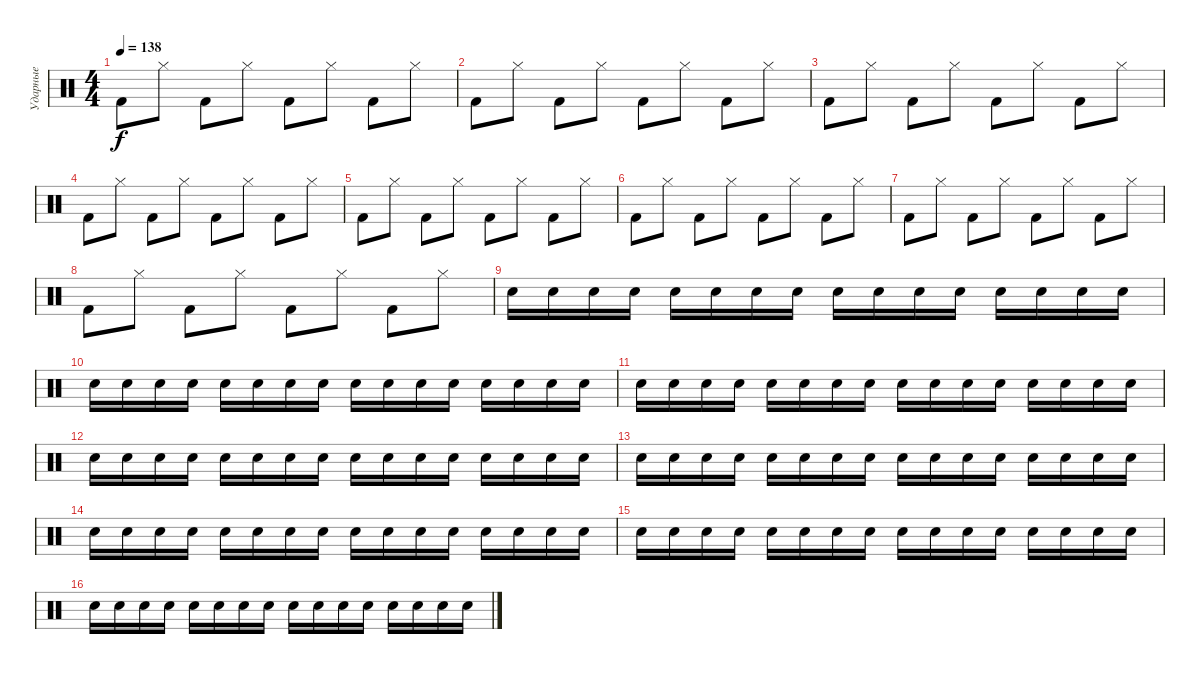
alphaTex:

\track ("Ударные" "Ударные") {instrument percussion}
\staff {score}
\articulation defaults
\ts (4 4)
\tempo 138
\clef neutral
\ks c "Kick (hit) 2".8{dy f} "Hi-Hat (closed)".8 "Kick (hit) 2".8 "Hi-Hat (closed)".8 "Kick (hit) 2".8 "Hi-Hat (closed)".8 "Kick (hit) 2".8 "Hi-Hat (closed)".8
|
"Kick (hit) 2".8 "Hi-Hat (closed)".8 "Kick (hit) 2".8 "Hi-Hat (closed)".8 "Kick (hit) 2".8 "Hi-Hat (closed)".8 "Kick (hit) 2".8 "Hi-Hat (closed)".8 |
"Kick (hit) 2".8 "Hi-Hat (closed)".8 "Kick (hit) 2".8 "Hi-Hat (closed)".8 "Kick (hit) 2".8 "Hi-Hat (closed)".8 "Kick (hit) 2".8 "Hi-Hat (closed)".8 |
"Kick (hit) 2".8 "Hi-Hat (closed)".8 "Kick (hit) 2".8 "Hi-Hat (closed)".8 "Kick (hit) 2".8 "Hi-Hat (closed)".8 "Kick (hit) 2".8 "Hi-Hat (closed)".8 |
"Kick (hit) 2".8 "Hi-Hat (closed)".8 "Kick (hit) 2".8 "Hi-Hat (closed)".8 "Kick (hit) 2".8 "Hi-Hat (closed)".8 "Kick (hit) 2".8 "Hi-Hat (closed)".8 |
"Kick (hit) 2".8 "Hi-Hat (closed)".8 "Kick (hit) 2".8 "Hi-Hat (closed)".8 "Kick (hit) 2".8 "Hi-Hat (closed)".8 "Kick (hit) 2".8 "Hi-Hat (closed)".8 |
"Kick (hit) 2".8 "Hi-Hat (closed)".8 "Kick (hit) 2".8 "Hi-Hat (closed)".8 "Kick (hit) 2".8 "Hi-Hat (closed)".8 "Kick (hit) 2".8 "Hi-Hat (closed)".8 |
"Kick (hit) 2".8 "Hi-Hat (closed)".8 "Kick (hit) 2".8 "Hi-Hat (closed)".8 "Kick (hit) 2".8 "Hi-Hat (closed)".8 "Kick (hit) 2".8 "Hi-Hat (closed)".8 |
"Snare (hit) 2".16 "Snare (hit) 2".16 "Snare (hit) 2".16 "Snare (hit) 2".16 "Snare (hit) 2".16 "Snare (hit) 2".16 "Snare (hit) 2".16 "Snare (hit) 2".16 "Snare (hit) 2".16 "Snare (hit) 2".16 "Snare (hit) 2".16 "Snare (hit) 2".16 "Snare (hit) 2".16 "Snare (hit) 2".16 "Snare (hit) 2".16 "Snare (hit) 2".16 |
"Snare (hit) 2".16 "Snare (hit) 2".16 "Snare (hit) 2".16 "Snare (hit) 2".16 "Snare (hit) 2".16 "Snare (hit) 2".16 "Snare (hit) 2".16 "Snare (hit) 2".16 "Snare (hit) 2".16 "Snare (hit) 2".16 "Snare (hit) 2".16 "Snare (hit) 2".16 "Snare (hit) 2".16 "Snare (hit) 2".16 "Snare (hit) 2".16 "Snare (hit) 2".16 |
"Snare (hit) 2".16 "Snare (hit) 2".16 "Snare (hit) 2".16 "Snare (hit) 2".16 "Snare (hit) 2".16 "Snare (hit) 2".16 "Snare (hit) 2".16 "Snare (hit) 2".16 "Snare (hit) 2".16 "Snare (hit) 2".16 "Snare (hit) 2".16 "Snare (hit) 2".16 "Snare (hit) 2".16 "Snare (hit) 2".16 "Snare (hit) 2".16 "Snare (hit) 2".16 |
"Snare (hit) 2".16 "Snare (hit) 2".16 "Snare (hit) 2".16 "Snare (hit) 2".16 "Snare (hit) 2".16 "Snare (hit) 2".16 "Snare (hit) 2".16 "Snare (hit) 2".16 "Snare (hit) 2".16 "Snare (hit) 2".16 "Snare (hit) 2".16 "Snare (hit) 2".16 "Snare (hit) 2".16 "Snare (hit) 2".16 "Snare (hit) 2".16 "Snare (hit) 2".16 |
"Snare (hit) 2".16 "Snare (hit) 2".16 "Snare (hit) 2".16 "Snare (hit) 2".16 "Snare (hit) 2".16 "Snare (hit) 2".16 "Snare (hit) 2".16 "Snare (hit) 2".16 "Snare (hit) 2".16 "Snare (hit) 2".16 "Snare (hit) 2".16 "Snare (hit) 2".16 "Snare (hit) 2".16 "Snare (hit) 2".16 "Snare (hit) 2".16 "Snare (hit) 2".16 |
"Snare (hit) 2".16 "Snare (hit) 2".16 "Snare (hit) 2".16 "Snare (hit) 2".16 "Snare (hit) 2".16 "Snare (hit) 2".16 "Snare (hit) 2".16 "Snare (hit) 2".16 "Snare (hit) 2".16 "Snare (hit) 2".16 "Snare (hit) 2".16 "Snare (hit) 2".16 "Snare (hit) 2".16 "Snare (hit) 2".16 "Snare (hit) 2".16 "Snare (hit) 2".16 |
"Snare (hit) 2".16 "Snare (hit) 2".16 "Snare (hit) 2".16 "Snare (hit) 2".16 "Snare (hit) 2".16 "Snare (hit) 2".16 "Snare (hit) 2".16 "Snare (hit) 2".16 "Snare (hit) 2".16 "Snare (hit) 2".16 "Snare (hit) 2".16 "Snare (hit) 2".16 "Snare (hit) 2".16 "Snare (hit) 2".16 "Snare (hit) 2".16 "Snare (hit) 2".16 |
"Snare (hit) 2".16 "Snare (hit) 2".16 "Snare (hit) 2".16 "Snare (hit) 2".16 "Snare (hit) 2".16 "Snare (hit) 2".16 "Snare (hit) 2".16 "Snare (hit) 2".16 "Snare (hit) 2".16 "Snare (hit) 2".16 "Snare (hit) 2".16 "Snare (hit) 2".16 "Snare (hit) 2".16 "Snare (hit) 2".16 "Snare (hit) 2".16 "Snare (hit) 2".16
